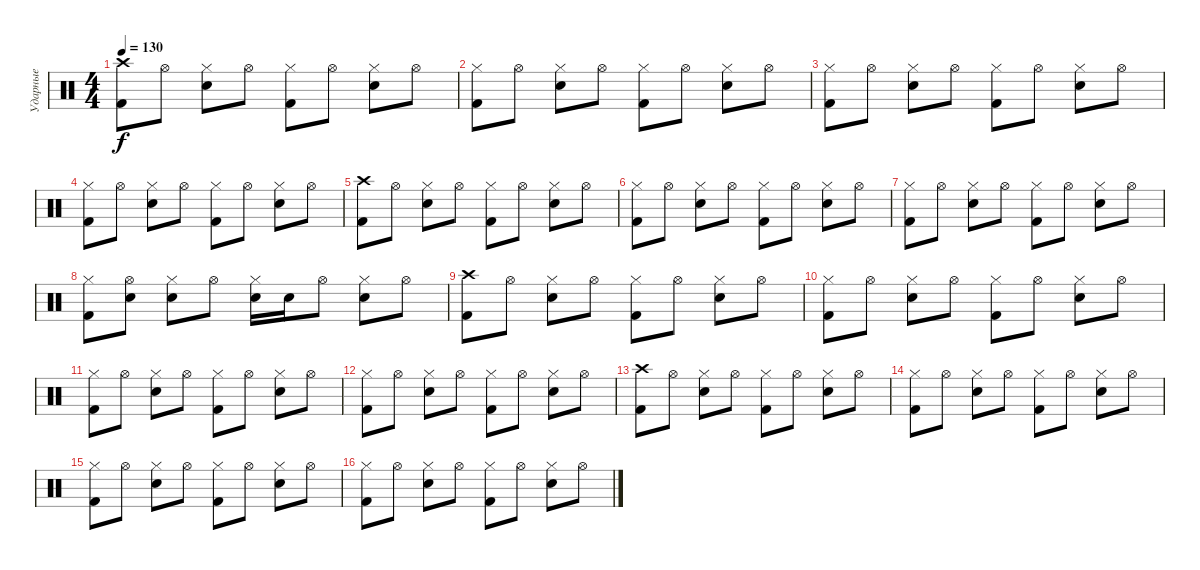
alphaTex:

\track ("Ударные" "Ударные") {instrument percussion}
\staff {score}
\articulation defaults
\ts (4 4)
\tempo 130
\clef neutral
\ks c
("Crash high (hit)" "Kick (hit) 2").8{dy f} "Hi-Hat (open)".8 ("Hi-Hat (closed)" "Snare (hit) 2").8 "Hi-Hat (open)".8 ("Hi-Hat (closed)" "Kick (hit) 2").8 "Hi-Hat (open)".8 ("Hi-Hat (closed)" "Snare (hit) 2").8 "Hi-Hat (open)".8 |
("Hi-Hat (closed)" "Kick (hit) 2").8 "Hi-Hat (open)".8 ("Hi-Hat (closed)" "Snare (hit) 2").8 "Hi-Hat (open)".8 ("Hi-Hat (closed)" "Kick (hit) 2").8 "Hi-Hat (open)".8 ("Hi-Hat (closed)" "Snare (hit) 2").8 "Hi-Hat (open)".8 |
("Hi-Hat (closed)" "Kick (hit) 2").8 "Hi-Hat (open)".8 ("Hi-Hat (closed)" "Snare (hit) 2").8 "Hi-Hat (open)".8 ("Hi-Hat (closed)" "Kick (hit) 2").8 "Hi-Hat (open)".8 ("Hi-Hat (closed)" "Snare (hit) 2").8 "Hi-Hat (open)".8 |
("Hi-Hat (closed)" "Kick (hit) 2").8 "Hi-Hat (open)".8 ("Hi-Hat (closed)" "Snare (hit) 2").8 "Hi-Hat (open)".8 ("Hi-Hat (closed)" "Kick (hit) 2").8 "Hi-Hat (open)".8 ("Hi-Hat (closed)" "Snare (hit) 2").8 "Hi-Hat (open)".8 |
("Crash high (hit)" "Kick (hit) 2").8 "Hi-Hat (open)".8 ("Hi-Hat (closed)" "Snare (hit) 2").8 "Hi-Hat (open)".8 ("Hi-Hat (closed)" "Kick (hit) 2").8 "Hi-Hat (open)".8 ("Hi-Hat (closed)" "Snare (hit) 2").8 "Hi-Hat (open)".8 |
("Hi-Hat (closed)" "Kick (hit) 2").8 "Hi-Hat (open)".8 ("Hi-Hat (closed)" "Snare (hit) 2").8 "Hi-Hat (open)".8 ("Hi-Hat (closed)" "Kick (hit) 2").8 "Hi-Hat (open)".8 ("Hi-Hat (closed)" "Snare (hit) 2").8 "Hi-Hat (open)".8 |
("Hi-Hat (closed)" "Kick (hit) 2").8 "Hi-Hat (open)".8 ("Hi-Hat (closed)" "Snare (hit) 2").8 "Hi-Hat (open)".8 ("Hi-Hat (closed)" "Kick (hit) 2").8 "Hi-Hat (open)".8 ("Hi-Hat (closed)" "Snare (hit) 2").8 "Hi-Hat (open)".8 |
("Hi-Hat (closed)" "Kick (hit) 2").8 ("Hi-Hat (open)" "Snare (hit) 2").8 ("Hi-Hat (closed)" "Snare (hit) 2").8 "Hi-Hat (open)".8 ("Hi-Hat (closed)" "Snare (hit) 2").16 "Snare (hit) 2".16 "Hi-Hat (open)".8 ("Hi-Hat (closed)" "Snare (hit) 2").8 "Hi-Hat (open)".8 |
("Crash high (hit)" "Kick (hit) 2").8 "Hi-Hat (open)".8 ("Hi-Hat (closed)" "Snare (hit) 2").8 "Hi-Hat (open)".8 ("Hi-Hat (closed)" "Kick (hit) 2").8 "Hi-Hat (open)".8 ("Hi-Hat (closed)" "Snare (hit) 2").8 "Hi-Hat (open)".8 |
("Hi-Hat (closed)" "Kick (hit) 2").8 "Hi-Hat (open)".8 ("Hi-Hat (closed)" "Snare (hit) 2").8 "Hi-Hat (open)".8 ("Hi-Hat (closed)" "Kick (hit) 2").8 "Hi-Hat (open)".8 ("Hi-Hat (closed)" "Snare (hit) 2").8 "Hi-Hat (open)".8 |
("Hi-Hat (closed)" "Kick (hit) 2").8 "Hi-Hat (open)".8 ("Hi-Hat (closed)" "Snare (hit) 2").8 "Hi-Hat (open)".8 ("Hi-Hat (closed)" "Kick (hit) 2").8 "Hi-Hat (open)".8 ("Hi-Hat (closed)" "Snare (hit) 2").8 "Hi-Hat (open)".8 |
("Hi-Hat (closed)" "Kick (hit) 2").8 "Hi-Hat (open)".8 ("Hi-Hat (closed)" "Snare (hit) 2").8 "Hi-Hat (open)".8 ("Hi-Hat (closed)" "Kick (hit) 2").8 "Hi-Hat (open)".8 ("Hi-Hat (closed)" "Snare (hit) 2").8 "Hi-Hat (open)".8 |
("Crash high (hit)" "Kick (hit) 2").8 "Hi-Hat (open)".8 ("Hi-Hat (closed)" "Snare (hit) 2").8 "Hi-Hat (open)".8 ("Hi-Hat (closed)" "Kick (hit) 2").8 "Hi-Hat (open)".8 ("Hi-Hat (closed)" "Snare (hit) 2").8 "Hi-Hat (open)".8 |
("Hi-Hat (closed)" "Kick (hit) 2").8 "Hi-Hat (open)".8 ("Hi-Hat (closed)" "Snare (hit) 2").8 "Hi-Hat (open)".8 ("Hi-Hat (closed)" "Kick (hit) 2").8 "Hi-Hat (open)".8 ("Hi-Hat (closed)" "Snare (hit) 2").8 "Hi-Hat (open)".8 |
("Hi-Hat (closed)" "Kick (hit) 2").8 "Hi-Hat (open)".8 ("Hi-Hat (closed)" "Snare (hit) 2").8 "Hi-Hat (open)".8 ("Hi-Hat (closed)" "Kick (hit) 2").8 "Hi-Hat (open)".8 ("Hi-Hat (closed)" "Snare (hit) 2").8 "Hi-Hat (open)".8 |
("Hi-Hat (closed)" "Kick (hit) 2").8 "Hi-Hat (open)".8 ("Hi-Hat (closed)" "Snare (hit) 2").8 "Hi-Hat (open)".8 ("Hi-Hat (closed)" "Kick (hit) 2").8 "Hi-Hat (open)".8 ("Hi-Hat (closed)" "Snare (hit) 2").8 "Hi-Hat (open)".8
